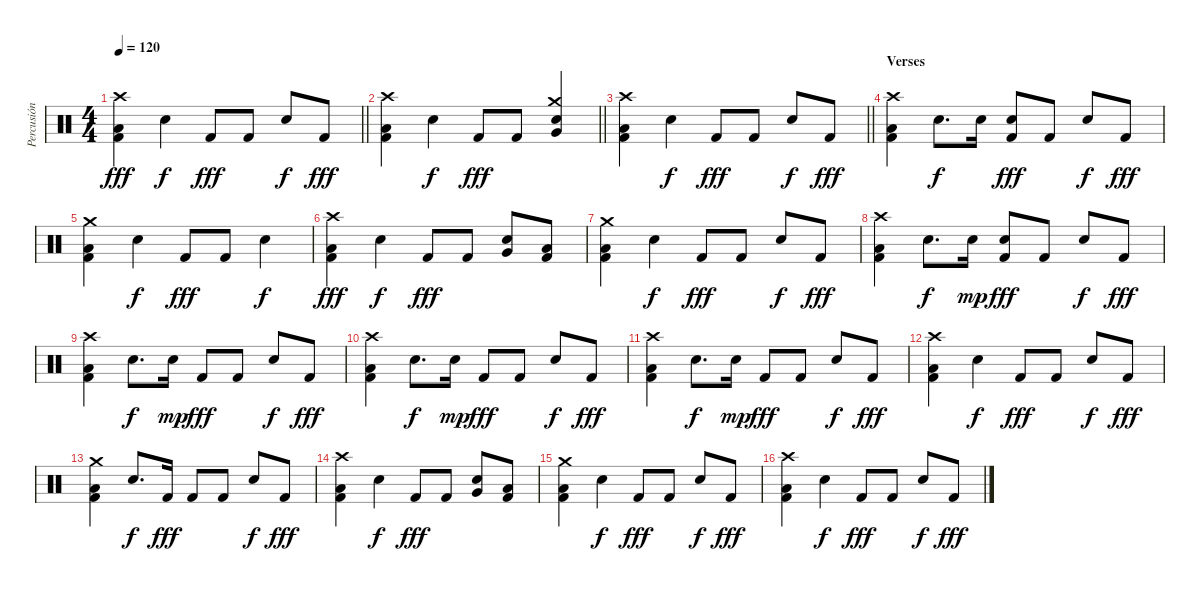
\track ("Percusión" "Percusión") {instrument percussion}
\staff {score}
\articulation defaults
\ts (4 4)
\tempo 120
\clef neutral
\barLineRight lightlight
\ks c
("Crash high (hit)" "Low Floor Tom (hit)" "Kick (hit) 2").4{dy fff} "Electric Snare (hit)".4{dy f} "Kick (hit) 2".8{dy fff} "Kick (hit) 2".8 "Electric Snare (hit)".8{dy f} "Kick (hit) 2".8{dy fff} |
\barLineRight lightlight
("Crash high (hit)" "Low Floor Tom (hit)" "Kick (hit) 2").4 "Electric Snare (hit)".4{dy f} "Kick (hit) 2".8{dy fff} "Kick (hit) 2".8 ("Crash medium (hit)" "Electric Snare (hit)" "Very Low Tom (hit)").4 |
\barLineRight lightlight
("Crash high (hit)" "Low Floor Tom (hit)" "Kick (hit) 2").4 "Electric Snare (hit)".4{dy f} "Kick (hit) 2".8{dy fff} "Kick (hit) 2".8 "Electric Snare (hit)".8{dy f} "Kick (hit) 2".8{dy fff} |
\section ("" "Verses")
("Crash high (hit)" "Low Floor Tom (hit)" "Kick (hit) 2").4 "Electric Snare (hit)".8{d dy f} "Electric Snare (hit)".16 ("Electric Snare (hit)" "Kick (hit) 2").8{dy fff} "Kick (hit) 2".8 "Electric Snare (hit)".8{dy f} "Kick (hit) 2".8{dy fff} |
("Crash medium (hit)" "Low Floor Tom (hit)" "Kick (hit) 2").4 "Electric Snare (hit)".4{dy f} "Kick (hit) 2".8{dy fff} "Kick (hit) 2".8 "Electric Snare (hit)".4{dy f} |
("Crash high (hit)" "Low Floor Tom (hit)" "Kick (hit) 2").4{dy fff} "Electric Snare (hit)".4{dy f} "Kick (hit) 2".8{dy fff} "Kick (hit) 2".8 ("Electric Snare (hit)" "Very Low Tom (hit)").8 ("Low Floor Tom (hit)" "Kick (hit) 2").8 |
("Crash medium (hit)" "Low Floor Tom (hit)" "Kick (hit) 2").4 "Electric Snare (hit)".4{dy f} "Kick (hit) 2".8{dy fff} "Kick (hit) 2".8 "Electric Snare (hit)".8{dy f} "Kick (hit) 2".8{dy fff} |
("Crash high (hit)" "Low Floor Tom (hit)" "Kick (hit) 2").4 "Electric Snare (hit)".8{d dy f} "Electric Snare (hit)".16{dy mp} ("Electric Snare (hit)" "Kick (hit) 2").8{dy fff} "Kick (hit) 2".8 "Electric Snare (hit)".8{dy f} "Kick (hit) 2".8{dy fff} |
("Crash high (hit)" "Low Floor Tom (hit)" "Kick (hit) 2").4 "Electric Snare (hit)".8{d dy f} "Electric Snare (hit)".16{dy mp} "Kick (hit) 2".8{dy fff} "Kick (hit) 2".8 "Electric Snare (hit)".8{dy f} "Kick (hit) 2".8{dy fff} |
("Crash high (hit)" "Low Floor Tom (hit)" "Kick (hit) 2").4 "Electric Snare (hit)".8{d dy f} "Electric Snare (hit)".16{dy mp} "Kick (hit) 2".8{dy fff} "Kick (hit) 2".8 "Electric Snare (hit)".8{dy f} "Kick (hit) 2".8{dy fff} |
("Crash high (hit)" "Low Floor Tom (hit)" "Kick (hit) 2").4 "Electric Snare (hit)".8{d dy f} "Electric Snare (hit)".16{dy mp} "Kick (hit) 2".8{dy fff} "Kick (hit) 2".8 "Electric Snare (hit)".8{dy f} "Kick (hit) 2".8{dy fff} |
("Crash high (hit)" "Low Floor Tom (hit)" "Kick (hit) 2").4 "Electric Snare (hit)".4{dy f} "Kick (hit) 2".8{dy fff} "Kick (hit) 2".8 "Electric Snare (hit)".8{dy f} "Kick (hit) 2".8{dy fff} |
("Crash medium (hit)" "Low Floor Tom (hit)" "Kick (hit) 2").4 "Electric Snare (hit)".8{d dy f} "Kick (hit) 2".16{dy fff} "Kick (hit) 2".8 "Kick (hit) 2".8 "Electric Snare (hit)".8{dy f} "Kick (hit) 2".8{dy fff} |
("Crash high (hit)" "Low Floor Tom (hit)" "Kick (hit) 2").4 "Electric Snare (hit)".4{dy f} "Kick (hit) 2".8{dy fff} "Kick (hit) 2".8 ("Electric Snare (hit)" "Very Low Tom (hit)").8 ("Low Floor Tom (hit)" "Kick (hit) 2").8 |
("Crash medium (hit)" "Low Floor Tom (hit)" "Kick (hit) 2").4 "Electric Snare (hit)".4{dy f} "Kick (hit) 2".8{dy fff} "Kick (hit) 2".8 "Electric Snare (hit)".8{dy f} "Kick (hit) 2".8{dy fff} |
("Crash high (hit)" "Low Floor Tom (hit)" "Kick (hit) 2").4 "Electric Snare (hit)".4{dy f} "Kick (hit) 2".8{dy fff} "Kick (hit) 2".8 "Electric Snare (hit)".8{dy f} "Kick (hit) 2".8{dy fff}
